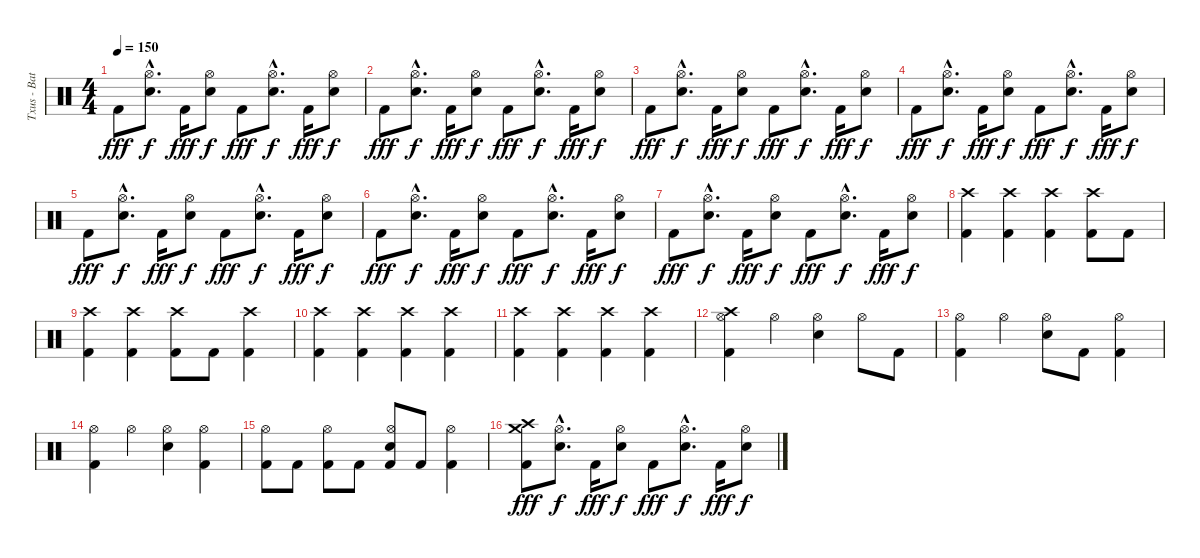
\track ("Txus - Batería" "Txus - Bat") {instrument percussion}
\staff {score}
\articulation defaults
\ts (4 4)
\tempo 150
\clef neutral
\ks c "Kick (hit) 2".8{dy fff}
("Hi-Hat (open)"{hac} "Electric Snare (hit)"{hac}).8{d dy f} "Kick (hit) 2".16{dy fff} ("Hi-Hat (open)" "Electric Snare (hit)").8{dy f} "Kick (hit) 2".8{dy fff} ("Hi-Hat (open)"{hac} "Electric Snare (hit)"{hac}).8{d dy f} "Kick (hit) 2".16{dy fff} ("Hi-Hat (open)" "Electric Snare (hit)").8{dy f} |
"Kick (hit) 2".8{dy fff} ("Hi-Hat (open)"{hac} "Electric Snare (hit)"{hac}).8{d dy f} "Kick (hit) 2".16{dy fff} ("Hi-Hat (open)" "Electric Snare (hit)").8{dy f} "Kick (hit) 2".8{dy fff} ("Hi-Hat (open)"{hac} "Electric Snare (hit)"{hac}).8{d dy f} "Kick (hit) 2".16{dy fff} ("Hi-Hat (open)" "Electric Snare (hit)").8{dy f} |
"Kick (hit) 2".8{dy fff} ("Hi-Hat (open)"{hac} "Electric Snare (hit)"{hac}).8{d dy f} "Kick (hit) 2".16{dy fff} ("Hi-Hat (open)" "Electric Snare (hit)").8{dy f} "Kick (hit) 2".8{dy fff} ("Hi-Hat (open)"{hac} "Electric Snare (hit)"{hac}).8{d dy f} "Kick (hit) 2".16{dy fff} ("Hi-Hat (open)" "Electric Snare (hit)").8{dy f} |
"Kick (hit) 2".8{dy fff} ("Hi-Hat (open)"{hac} "Electric Snare (hit)"{hac}).8{d dy f} "Kick (hit) 2".16{dy fff} ("Hi-Hat (open)" "Electric Snare (hit)").8{dy f} "Kick (hit) 2".8{dy fff} ("Hi-Hat (open)"{hac} "Electric Snare (hit)"{hac}).8{d dy f} "Kick (hit) 2".16{dy fff} ("Hi-Hat (open)" "Electric Snare (hit)").8{dy f} |
"Kick (hit) 2".8{dy fff} ("Hi-Hat (open)"{hac} "Electric Snare (hit)"{hac}).8{d dy f} "Kick (hit) 2".16{dy fff} ("Hi-Hat (open)" "Electric Snare (hit)").8{dy f} "Kick (hit) 2".8{dy fff} ("Hi-Hat (open)"{hac} "Electric Snare (hit)"{hac}).8{d dy f} "Kick (hit) 2".16{dy fff} ("Hi-Hat (open)" "Electric Snare (hit)").8{dy f} |
"Kick (hit) 2".8{dy fff} ("Hi-Hat (open)"{hac} "Electric Snare (hit)"{hac}).8{d dy f} "Kick (hit) 2".16{dy fff} ("Hi-Hat (open)" "Electric Snare (hit)").8{dy f} "Kick (hit) 2".8{dy fff} ("Hi-Hat (open)"{hac} "Electric Snare (hit)"{hac}).8{d dy f} "Kick (hit) 2".16{dy fff} ("Hi-Hat (open)" "Electric Snare (hit)").8{dy f} |
"Kick (hit) 2".8{dy fff} ("Hi-Hat (open)"{hac} "Electric Snare (hit)"{hac}).8{d dy f} "Kick (hit) 2".16{dy fff} ("Hi-Hat (open)" "Electric Snare (hit)").8{dy f} "Kick (hit) 2".8{dy fff} ("Hi-Hat (open)"{hac} "Electric Snare (hit)"{hac}).8{d dy f} "Kick (hit) 2".16{dy fff} ("Hi-Hat (open)" "Electric Snare (hit)").8{dy f} |
("Crash high (hit)" "Kick (hit) 2").4 ("Crash high (hit)" "Kick (hit) 2").4 ("Crash high (hit)" "Kick (hit) 2").4 ("Crash high (hit)" "Kick (hit) 2").8 "Kick (hit) 2".8 |
("Crash high (hit)" "Kick (hit) 2").4 ("Crash high (hit)" "Kick (hit) 2").4 ("Crash high (hit)" "Kick (hit) 2").8 "Kick (hit) 2".8 ("Crash high (hit)" "Kick (hit) 2").4 |
("Crash high (hit)" "Kick (hit) 2").4 ("Crash high (hit)" "Kick (hit) 2").4 ("Crash high (hit)" "Kick (hit) 2").4 ("Crash high (hit)" "Kick (hit) 2").4 |
("Crash high (hit)" "Kick (hit) 2").4 ("Crash high (hit)" "Kick (hit) 2").4 ("Crash high (hit)" "Kick (hit) 2").4 ("Crash high (hit)" "Kick (hit) 2").4 |
("Crash high (hit)" "Hi-Hat (open)" "Kick (hit) 2").4 "Hi-Hat (open)".4 ("Hi-Hat (open)" "Electric Snare (hit)").4 "Hi-Hat (open)".8 "Kick (hit) 2".8 |
("Hi-Hat (open)" "Kick (hit) 2").4 "Hi-Hat (open)".4 ("Hi-Hat (open)" "Electric Snare (hit)").8 "Kick (hit) 2".8 ("Hi-Hat (open)" "Kick (hit) 2").4 |
("Hi-Hat (open)" "Kick (hit) 2").4 "Hi-Hat (open)".4 ("Hi-Hat (open)" "Electric Snare (hit)").4 ("Hi-Hat (open)" "Kick (hit) 2").4 |
("Hi-Hat (open)" "Kick (hit) 2").8 "Kick (hit) 2".8 ("Hi-Hat (open)" "Kick (hit) 2").8 "Kick (hit) 2".8 ("Hi-Hat (open)" "Electric Snare (hit)" "Kick (hit) 2").8 "Kick (hit) 2".8 ("Hi-Hat (open)" "Kick (hit) 2").4 |
("Crash medium (hit)" "Crash high (hit)" "Kick (hit) 2").8{dy fff} ("Hi-Hat (open)"{hac} "Electric Snare (hit)"{hac}).8{d dy f} "Kick (hit) 2".16{dy fff} ("Hi-Hat (open)" "Electric Snare (hit)").8{dy f} "Kick (hit) 2".8{dy fff} ("Hi-Hat (open)"{hac} "Electric Snare (hit)"{hac}).8{d dy f} "Kick (hit) 2".16{dy fff} ("Hi-Hat (open)" "Electric Snare (hit)").8{dy f}
